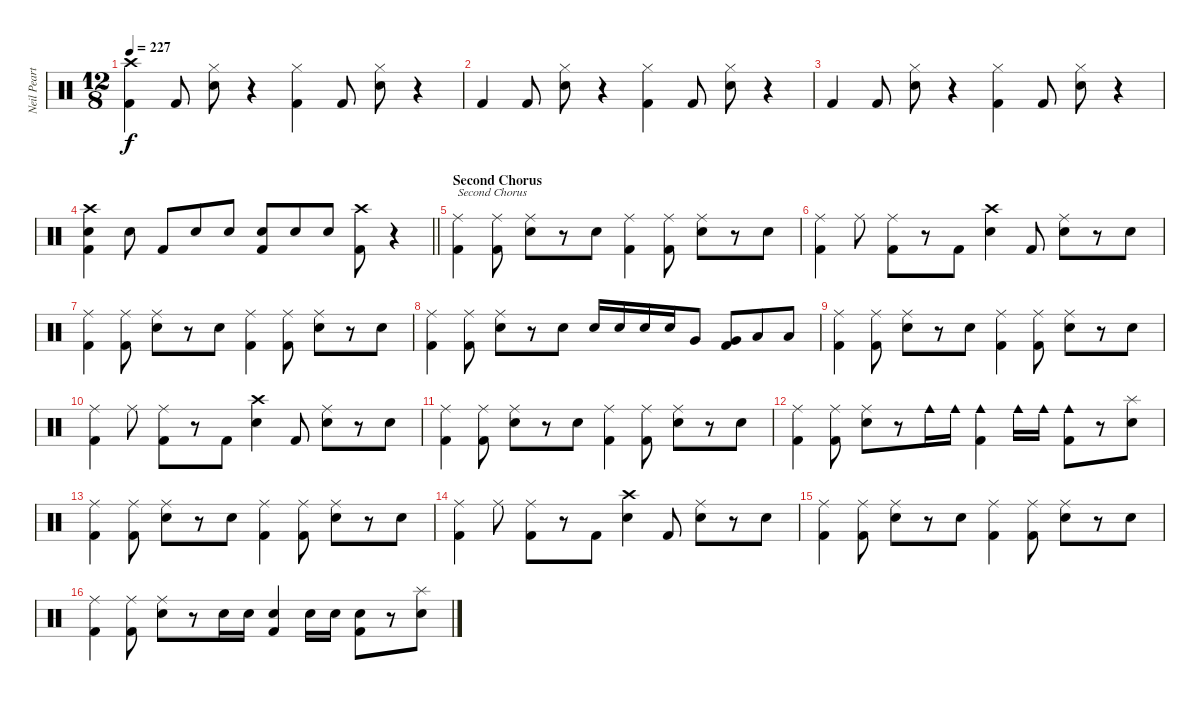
\track ("Neil Peart" "Neil Peart") {instrument percussion}
\staff {score}
\articulation defaults
\ts (12 8)
\tempo 227
\clef neutral
\ks c
("Crash high (hit)" "Kick (hit) 2").4{dy f} "Kick (hit) 2".8 ("Electric Snare (hit)" "Hi-Hat (closed)").8 r.4 ("Hi-Hat (closed)" "Kick (hit) 2").4 "Kick (hit) 2".8 ("Electric Snare (hit)" "Hi-Hat (closed)").8 r.4 |
"Kick (hit) 2".4 "Kick (hit) 2".8 ("Electric Snare (hit)" "Hi-Hat (closed)").8 r.4 ("Hi-Hat (closed)" "Kick (hit) 2").4 "Kick (hit) 2".8 ("Electric Snare (hit)" "Hi-Hat (closed)").8 r.4 |
"Kick (hit) 2".4 "Kick (hit) 2".8 ("Electric Snare (hit)" "Hi-Hat (closed)").8 r.4 ("Hi-Hat (closed)" "Kick (hit) 2").4 "Kick (hit) 2".8 ("Electric Snare (hit)" "Hi-Hat (closed)").8 r.4 |
\barLineRight lightlight
("Electric Snare (hit)" "Crash high (hit)" "Kick (hit) 2").4 "Electric Snare (hit)".8 "Kick (hit) 2".8 "Electric Snare (hit)".8 "Electric Snare (hit)".8 ("Electric Snare (hit)" "Kick (hit) 2").8 "Electric Snare (hit)".8 "Electric Snare (hit)".8 ("Crash high (hit)" "Kick (hit) 2").8 r.4 |
\section ("" "Second Chorus")
("Ride (middle)" "Kick (hit) 2").4{txt "Second Chorus"} ("Ride (middle)" "Kick (hit) 2").8 ("Electric Snare (hit)" "Ride (middle)").8 r.8 "Electric Snare (hit)".8 ("Ride (middle)" "Kick (hit) 2").4 ("Ride (middle)" "Kick (hit) 2").8 ("Electric Snare (hit)" "Ride (middle)").8 r.8 "Electric Snare (hit)".8 |
("Ride (middle)" "Kick (hit) 2").4 "Ride (middle)".8 ("Ride (middle)" "Kick (hit) 2").8 r.8 "Kick (hit) 2".8 ("Electric Snare (hit)" "Crash high (hit)").4 "Kick (hit) 2".8 ("Electric Snare (hit)" "Ride (middle)").8 r.8 "Electric Snare (hit)".8 |
("Ride (middle)" "Kick (hit) 2").4 ("Ride (middle)" "Kick (hit) 2").8 ("Electric Snare (hit)" "Ride (middle)").8 r.8 "Electric Snare (hit)".8 ("Ride (middle)" "Kick (hit) 2").4 ("Ride (middle)" "Kick (hit) 2").8 ("Electric Snare (hit)" "Ride (middle)").8 r.8 "Electric Snare (hit)".8 |
("Ride (middle)" "Kick (hit) 2").4 ("Ride (middle)" "Kick (hit) 2").8 ("Electric Snare (hit)" "Ride (middle)").8 r.8 "Electric Snare (hit)".8 "Electric Snare (hit)".16 "Electric Snare (hit)".16 "Electric Snare (hit)".16 "Electric Snare (hit)".16 "Very Low Tom (hit)".8 ("Kick (hit) 2" "Very Low Tom (hit)").8 "Low Tom (hit)".8 "Low Tom (hit)".8 |
("Ride (middle)" "Kick (hit) 2").4 ("Ride (middle)" "Kick (hit) 2").8 ("Electric Snare (hit)" "Ride (middle)").8 r.8 "Electric Snare (hit)".8 ("Ride (middle)" "Kick (hit) 2").4 ("Ride (middle)" "Kick (hit) 2").8 ("Electric Snare (hit)" "Ride (middle)").8 r.8 "Electric Snare (hit)".8 |
("Ride (middle)" "Kick (hit) 2").4 "Ride (middle)".8 ("Ride (middle)" "Kick (hit) 2").8 r.8 "Kick (hit) 2".8 ("Electric Snare (hit)" "Crash high (hit)").4 "Kick (hit) 2".8 ("Electric Snare (hit)" "Ride (middle)").8 r.8 "Electric Snare (hit)".8 |
("Ride (middle)" "Kick (hit) 2").4 ("Ride (middle)" "Kick (hit) 2").8 ("Electric Snare (hit)" "Ride (middle)").8 r.8 "Electric Snare (hit)".8 ("Ride (middle)" "Kick (hit) 2").4 ("Ride (middle)" "Kick (hit) 2").8 ("Electric Snare (hit)" "Ride (middle)").8 r.8 "Electric Snare (hit)".8 |
("Ride (middle)" "Kick (hit) 2").4 ("Ride (middle)" "Kick (hit) 2").8 ("Electric Snare (hit)" "Ride (middle)").8 r.8 "Cowbell medium (hit)".16 "Cowbell medium (hit)".16 ("Kick (hit) 2" "Cowbell medium (hit)").4 "Cowbell medium (hit)".16 "Cowbell medium (hit)".16 ("Kick (hit) 2" "Cowbell medium (hit)").8 r.8 ("Electric Snare (hit)" "Splash (hit)").8 |
("Ride (middle)" "Kick (hit) 2").4 ("Ride (middle)" "Kick (hit) 2").8 ("Electric Snare (hit)" "Ride (middle)").8 r.8 "Electric Snare (hit)".8 ("Ride (middle)" "Kick (hit) 2").4 ("Ride (middle)" "Kick (hit) 2").8 ("Electric Snare (hit)" "Ride (middle)").8 r.8 "Electric Snare (hit)".8 |
("Ride (middle)" "Kick (hit) 2").4 "Ride (middle)".8 ("Ride (middle)" "Kick (hit) 2").8 r.8 "Kick (hit) 2".8 ("Electric Snare (hit)" "Crash high (hit)").4 "Kick (hit) 2".8 ("Electric Snare (hit)" "Ride (middle)").8 r.8 "Electric Snare (hit)".8 |
("Ride (middle)" "Kick (hit) 2").4 ("Ride (middle)" "Kick (hit) 2").8 ("Electric Snare (hit)" "Ride (middle)").8 r.8 "Electric Snare (hit)".8 ("Ride (middle)" "Kick (hit) 2").4 ("Ride (middle)" "Kick (hit) 2").8 ("Electric Snare (hit)" "Ride (middle)").8 r.8 "Electric Snare (hit)".8 |
("Ride (middle)" "Kick (hit) 2").4 ("Ride (middle)" "Kick (hit) 2").8 ("Electric Snare (hit)" "Ride (middle)").8 r.8 "Electric Snare (hit)".16 "Electric Snare (hit)".16 ("Electric Snare (hit)" "Kick (hit) 2").4 "Electric Snare (hit)".16 "Electric Snare (hit)".16 ("Electric Snare (hit)" "Kick (hit) 2").8 r.8 ("Electric Snare (hit)" "Splash (hit)").8
